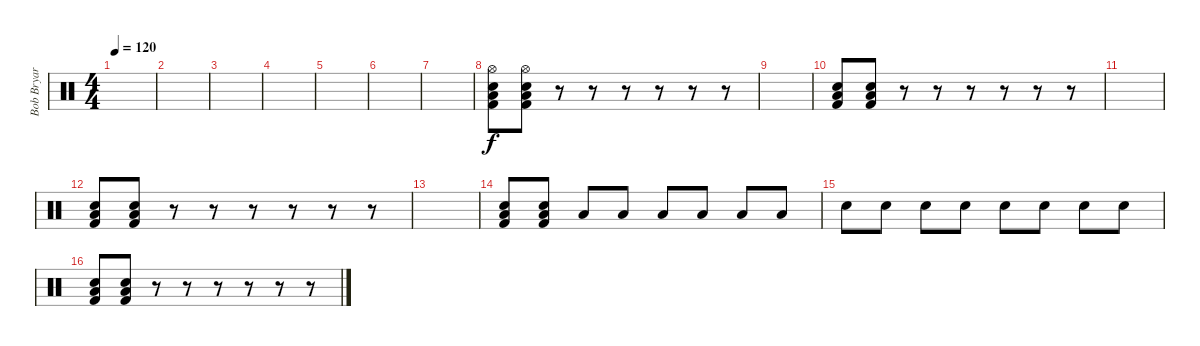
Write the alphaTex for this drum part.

\track ("Bob Bryar [Drums]" "Bob Bryar ") {instrument percussion}
\staff {score}
\articulation defaults
\ts (4 4)
\tempo 120
\clef neutral
\ks c
|
|
|
|
|
|
|
("Hi-Hat (open)" "Electric Snare (hit)" "Low Tom (hit)" "Kick (hit) 2").8 ("Hi-Hat (open)" "Electric Snare (hit)" "Low Tom (hit)" "Kick (hit) 2").8 r.8 r.8 r.8 r.8 r.8 r.8 |
|
("Electric Snare (hit)" "Low Tom (hit)" "Kick (hit) 2").8 ("Electric Snare (hit)" "Low Tom (hit)" "Kick (hit) 2").8 r.8 r.8 r.8 r.8 r.8 r.8 |
|
("Electric Snare (hit)" "Low Tom (hit)" "Kick (hit) 2").8 ("Electric Snare (hit)" "Low Tom (hit)" "Kick (hit) 2").8 r.8 r.8 r.8 r.8 r.8 r.8 |
|
("Electric Snare (hit)" "Low Tom (hit)" "Kick (hit) 2").8 ("Electric Snare (hit)" "Low Tom (hit)" "Kick (hit) 2").8 "Low Tom (hit)".8 "Low Tom (hit)".8 "Low Tom (hit)".8 "Low Tom (hit)".8 "Low Tom (hit)".8 "Low Tom (hit)".8 |
"Electric Snare (hit)".8 "Electric Snare (hit)".8 "Electric Snare (hit)".8 "Electric Snare (hit)".8 "Electric Snare (hit)".8 "Electric Snare (hit)".8 "Electric Snare (hit)".8 "Electric Snare (hit)".8 |
("Electric Snare (hit)" "Low Tom (hit)" "Kick (hit) 2").8 ("Electric Snare (hit)" "Low Tom (hit)" "Kick (hit) 2").8 r.8 r.8 r.8 r.8 r.8 r.8
